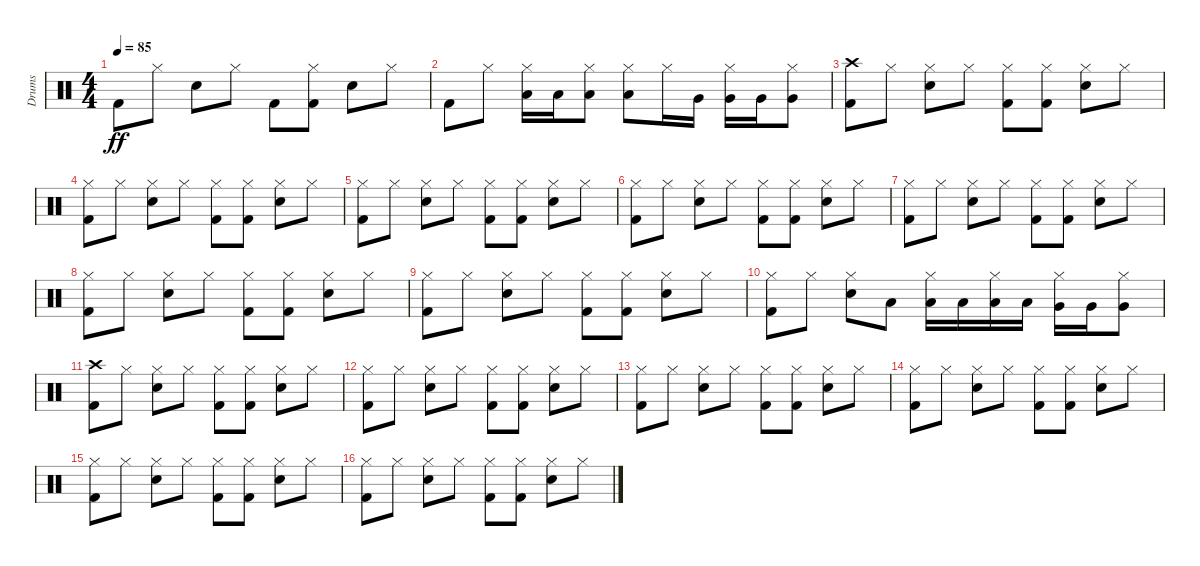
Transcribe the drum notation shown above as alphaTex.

\track ("Drums" "Drums") {instrument percussion}
\staff {score}
\articulation defaults
\ts (4 4)
\tempo 85
\clef neutral
\ks c "Kick (hit) 2".8{dy ff} "Hi-Hat (closed)".8 "Electric Snare (hit)".8 "Hi-Hat (closed)".8 "Kick (hit) 2".8
("Kick (hit) 2" "Hi-Hat (closed)").8 "Electric Snare (hit)".8 "Hi-Hat (closed)".8 |
"Kick (hit) 2".8 "Hi-Hat (closed)".8 ("Hi-Hat (closed)" "Low Tom (hit)").16 "Low Tom (hit)".16 ("Hi-Hat (closed)" "Low Tom (hit)").8 ("Hi-Hat (closed)" "Low Tom (hit)").8 "Hi-Hat (closed)".16 "Very Low Tom (hit)".16 ("Hi-Hat (closed)" "Very Low Tom (hit)").16 "Very Low Tom (hit)".16 ("Hi-Hat (closed)" "Very Low Tom (hit)").8 |
("Kick (hit) 2" "Crash high (hit)").8 "Hi-Hat (closed)".8 ("Electric Snare (hit)" "Hi-Hat (closed)").8 "Hi-Hat (closed)".8 ("Kick (hit) 2" "Hi-Hat (closed)").8 ("Kick (hit) 2" "Hi-Hat (closed)").8 ("Electric Snare (hit)" "Hi-Hat (closed)").8 "Hi-Hat (closed)".8 |
("Kick (hit) 2" "Hi-Hat (closed)").8 "Hi-Hat (closed)".8 ("Electric Snare (hit)" "Hi-Hat (closed)").8 "Hi-Hat (closed)".8 ("Kick (hit) 2" "Hi-Hat (closed)").8 ("Kick (hit) 2" "Hi-Hat (closed)").8 ("Electric Snare (hit)" "Hi-Hat (closed)").8 "Hi-Hat (closed)".8 |
("Kick (hit) 2" "Hi-Hat (closed)").8 "Hi-Hat (closed)".8 ("Electric Snare (hit)" "Hi-Hat (closed)").8 "Hi-Hat (closed)".8 ("Kick (hit) 2" "Hi-Hat (closed)").8 ("Kick (hit) 2" "Hi-Hat (closed)").8 ("Electric Snare (hit)" "Hi-Hat (closed)").8 "Hi-Hat (closed)".8 |
("Kick (hit) 2" "Hi-Hat (closed)").8 "Hi-Hat (closed)".8 ("Electric Snare (hit)" "Hi-Hat (closed)").8 "Hi-Hat (closed)".8 ("Kick (hit) 2" "Hi-Hat (closed)").8 ("Kick (hit) 2" "Hi-Hat (closed)").8 ("Electric Snare (hit)" "Hi-Hat (closed)").8 "Hi-Hat (closed)".8 |
("Kick (hit) 2" "Hi-Hat (closed)").8 "Hi-Hat (closed)".8 ("Electric Snare (hit)" "Hi-Hat (closed)").8 "Hi-Hat (closed)".8 ("Kick (hit) 2" "Hi-Hat (closed)").8 ("Kick (hit) 2" "Hi-Hat (closed)").8 ("Electric Snare (hit)" "Hi-Hat (closed)").8 "Hi-Hat (closed)".8 |
("Kick (hit) 2" "Hi-Hat (closed)").8 "Hi-Hat (closed)".8 ("Electric Snare (hit)" "Hi-Hat (closed)").8 "Hi-Hat (closed)".8 ("Kick (hit) 2" "Hi-Hat (closed)").8 ("Kick (hit) 2" "Hi-Hat (closed)").8 ("Electric Snare (hit)" "Hi-Hat (closed)").8 "Hi-Hat (closed)".8 |
("Kick (hit) 2" "Hi-Hat (closed)").8 "Hi-Hat (closed)".8 ("Electric Snare (hit)" "Hi-Hat (closed)").8 "Hi-Hat (closed)".8 ("Kick (hit) 2" "Hi-Hat (closed)").8 ("Kick (hit) 2" "Hi-Hat (closed)").8 ("Electric Snare (hit)" "Hi-Hat (closed)").8 "Hi-Hat (closed)".8 |
("Kick (hit) 2" "Hi-Hat (closed)").8 "Hi-Hat (closed)".8 ("Electric Snare (hit)" "Hi-Hat (closed)").8 "Low Tom (hit)".8 ("Hi-Hat (closed)" "Low Tom (hit)").16 "Low Tom (hit)".16 ("Hi-Hat (closed)" "Low Tom (hit)").16 "Low Tom (hit)".16 ("Hi-Hat (closed)" "Very Low Tom (hit)").16 "Very Low Tom (hit)".16 ("Hi-Hat (closed)" "Very Low Tom (hit)").8 |
("Kick (hit) 2" "Crash high (hit)").8 "Hi-Hat (closed)".8 ("Electric Snare (hit)" "Hi-Hat (closed)").8 "Hi-Hat (closed)".8 ("Kick (hit) 2" "Hi-Hat (closed)").8 ("Kick (hit) 2" "Hi-Hat (closed)").8 ("Electric Snare (hit)" "Hi-Hat (closed)").8 "Hi-Hat (closed)".8 |
("Kick (hit) 2" "Hi-Hat (closed)").8 "Hi-Hat (closed)".8 ("Electric Snare (hit)" "Hi-Hat (closed)").8 "Hi-Hat (closed)".8 ("Kick (hit) 2" "Hi-Hat (closed)").8 ("Kick (hit) 2" "Hi-Hat (closed)").8 ("Electric Snare (hit)" "Hi-Hat (closed)").8 "Hi-Hat (closed)".8 |
("Kick (hit) 2" "Hi-Hat (closed)").8 "Hi-Hat (closed)".8 ("Electric Snare (hit)" "Hi-Hat (closed)").8 "Hi-Hat (closed)".8 ("Kick (hit) 2" "Hi-Hat (closed)").8 ("Kick (hit) 2" "Hi-Hat (closed)").8 ("Electric Snare (hit)" "Hi-Hat (closed)").8 "Hi-Hat (closed)".8 |
("Kick (hit) 2" "Hi-Hat (closed)").8 "Hi-Hat (closed)".8 ("Electric Snare (hit)" "Hi-Hat (closed)").8 "Hi-Hat (closed)".8 ("Kick (hit) 2" "Hi-Hat (closed)").8 ("Kick (hit) 2" "Hi-Hat (closed)").8 ("Electric Snare (hit)" "Hi-Hat (closed)").8 "Hi-Hat (closed)".8 |
("Kick (hit) 2" "Hi-Hat (closed)").8 "Hi-Hat (closed)".8 ("Electric Snare (hit)" "Hi-Hat (closed)").8 "Hi-Hat (closed)".8 ("Kick (hit) 2" "Hi-Hat (closed)").8 ("Kick (hit) 2" "Hi-Hat (closed)").8 ("Electric Snare (hit)" "Hi-Hat (closed)").8 "Hi-Hat (closed)".8 |
("Kick (hit) 2" "Hi-Hat (closed)").8 "Hi-Hat (closed)".8 ("Electric Snare (hit)" "Hi-Hat (closed)").8 "Hi-Hat (closed)".8 ("Kick (hit) 2" "Hi-Hat (closed)").8 ("Kick (hit) 2" "Hi-Hat (closed)").8 ("Electric Snare (hit)" "Hi-Hat (closed)").8 "Hi-Hat (closed)".8
